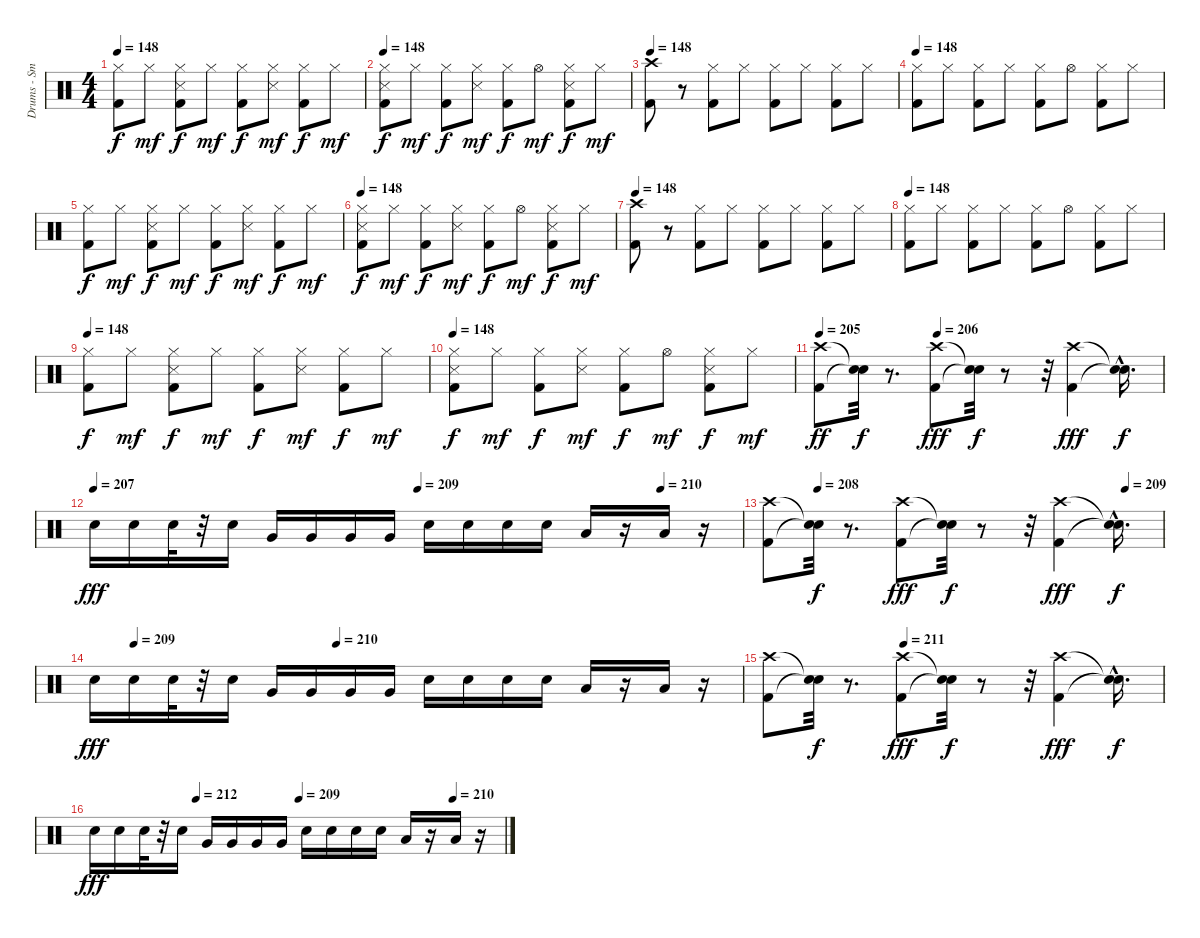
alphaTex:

\track ("Drums - Smelly" "Drums - Sm") {instrument percussion}
\staff {score}
\articulation defaults
\ts (4 4)
\tempo 148
\clef neutral
\ks c
("Kick (hit) 2" "Hi-Hat (closed)").8{dy f} "Hi-Hat (closed)".8{dy mf} ("Hi-Hat (closed)" "Kick (hit) 2" "Snare (side stick) 3").8{dy f} "Hi-Hat (closed)".8{dy mf} ("Hi-Hat (closed)" "Kick (hit) 2").8{dy f} ("Hi-Hat (closed)" "Snare (side stick) 3").8{dy mf} ("Hi-Hat (closed)" "Kick (hit) 2").8{dy f} "Hi-Hat (closed)".8{dy mf} |
\tempo 148
("Snare (side stick) 3" "Hi-Hat (closed)" "Kick (hit) 2").8{dy f} "Hi-Hat (closed)".8{dy mf} ("Kick (hit) 2" "Hi-Hat (closed)").8{dy f} ("Hi-Hat (closed)" "Snare (side stick) 3").8{dy mf} ("Hi-Hat (closed)" "Kick (hit) 2").8{dy f} "Hi-Hat (open)".8{dy mf} ("Hi-Hat (closed)" "Kick (hit) 2" "Snare (side stick) 3").8{dy f} "Hi-Hat (closed)".8{dy mf} |
\tempo 148
("Crash high (hit)" "Kick (hit) 2").8 r.8 ("Kick (hit) 2" "Hi-Hat (closed)").8 "Hi-Hat (closed)".8 ("Hi-Hat (closed)" "Kick (hit) 2").8 "Hi-Hat (closed)".8 ("Kick (hit) 2" "Hi-Hat (closed)").8 "Hi-Hat (closed)".8 |
\tempo 148
("Kick (hit) 2" "Hi-Hat (closed)").8 "Hi-Hat (closed)".8 ("Hi-Hat (closed)" "Kick (hit) 2").8 "Hi-Hat (closed)".8 ("Hi-Hat (closed)" "Kick (hit) 2").8 "Hi-Hat (open)".8 ("Hi-Hat (closed)" "Kick (hit) 2").8 "Hi-Hat (closed)".8 |
("Hi-Hat (closed)" "Kick (hit) 2").8{dy f} "Hi-Hat (closed)".8{dy mf} ("Hi-Hat (closed)" "Kick (hit) 2" "Snare (side stick) 3").8{dy f} "Hi-Hat (closed)".8{dy mf} ("Kick (hit) 2" "Hi-Hat (closed)").8{dy f} ("Hi-Hat (closed)" "Snare (side stick) 3").8{dy mf} ("Hi-Hat (closed)" "Kick (hit) 2").8{dy f} "Hi-Hat (closed)".8{dy mf} |
\tempo 148
("Hi-Hat (closed)" "Kick (hit) 2" "Snare (side stick) 3").8{dy f} "Hi-Hat (closed)".8{dy mf} ("Kick (hit) 2" "Hi-Hat (closed)").8{dy f} ("Snare (side stick) 3" "Hi-Hat (closed)").8{dy mf} ("Hi-Hat (closed)" "Kick (hit) 2").8{dy f} "Hi-Hat (open)".8{dy mf} ("Hi-Hat (closed)" "Snare (side stick) 3" "Kick (hit) 2").8{dy f} "Hi-Hat (closed)".8{dy mf} |
\tempo 148
("Crash high (hit)" "Kick (hit) 2").8 r.8 ("Hi-Hat (closed)" "Kick (hit) 2").8 "Hi-Hat (closed)".8 ("Kick (hit) 2" "Hi-Hat (closed)").8 "Hi-Hat (closed)".8 ("Kick (hit) 2" "Hi-Hat (closed)").8 "Hi-Hat (closed)".8 |
\tempo 148
("Hi-Hat (closed)" "Kick (hit) 2").8 "Hi-Hat (closed)".8 ("Hi-Hat (closed)" "Kick (hit) 2").8 "Hi-Hat (closed)".8 ("Hi-Hat (closed)" "Kick (hit) 2").8 "Hi-Hat (open)".8 ("Kick (hit) 2" "Hi-Hat (closed)").8 "Hi-Hat (closed)".8 |
\tempo 148
("Kick (hit) 2" "Hi-Hat (closed)").8{dy f} "Hi-Hat (closed)".8{dy mf} ("Kick (hit) 2" "Snare (side stick) 3" "Hi-Hat (closed)").8{dy f} "Hi-Hat (closed)".8{dy mf} ("Hi-Hat (closed)" "Kick (hit) 2").8{dy f} ("Snare (side stick) 3" "Hi-Hat (closed)").8{dy mf} ("Kick (hit) 2" "Hi-Hat (closed)").8{dy f} "Hi-Hat (closed)".8{dy mf} |
\tempo 148
("Hi-Hat (closed)" "Kick (hit) 2" "Snare (side stick) 3").8{dy f} "Hi-Hat (closed)".8{dy mf} ("Hi-Hat (closed)" "Kick (hit) 2").8{dy f} ("Snare (side stick) 3" "Hi-Hat (closed)").8{dy mf} ("Hi-Hat (closed)" "Kick (hit) 2").8{dy f} "Hi-Hat (open)".8{dy mf} ("Snare (side stick) 3" "Kick (hit) 2" "Hi-Hat (closed)").8{dy f} "Hi-Hat (closed)".8{dy mf} |
\tempo 205
\tempo (206 0.34375)
("Crash high (hit)" "Kick (hit) 2").8{dy ff} ("Snare (hit)"{t} "Snare (hit)"{t}).32{dy f} r.8{d} ("Crash high (hit)" "Kick (hit) 2").8{dy fff} ("Snare (hit)"{t} "Snare (hit)"{t}).32{dy f} r.8 r.32 ("Kick (hit) 2" "Crash high (hit)").4{dy fff} ("Snare (hit)"{hac t} "Snare (hit)"{hac t}).16{d dy f} |
\tempo 207
\tempo (209 0.5)
\tempo (210 0.875)
"Electric Snare (hit)".16{dy fff} "Electric Snare (hit)".16 "Electric Snare (hit)".32 r.32 "Electric Snare (hit)".16 "Very Low Tom (hit)".16 "Very Low Tom (hit)".16 "Very Low Tom (hit)".16 "Very Low Tom (hit)".16 "Electric Snare (hit)".16 "Electric Snare (hit)".16 "Electric Snare (hit)".16 "Electric Snare (hit)".16 "Low Floor Tom (hit)".16 r.16 "Low Floor Tom (hit)".16 r.16 |
\tempo (208 0.125)
\tempo (209 0.90625)
("Crash high (hit)" "Kick (hit) 2").8 ("Snare (hit)"{t} "Snare (hit)"{t}).32{dy f} r.8{d} ("Crash high (hit)" "Kick (hit) 2").8{dy fff} ("Snare (hit)"{t} "Snare (hit)"{t}).32{dy f} r.8 r.32 ("Kick (hit) 2" "Crash high (hit)").4{dy fff} ("Snare (hit)"{hac t} "Snare (hit)"{hac t}).16{d dy f} |
\tempo (209 0.0625)
\tempo (210 0.375)
"Electric Snare (hit)".16{dy fff} "Electric Snare (hit)".16 "Electric Snare (hit)".32 r.32 "Electric Snare (hit)".16 "Very Low Tom (hit)".16 "Very Low Tom (hit)".16 "Very Low Tom (hit)".16 "Very Low Tom (hit)".16 "Electric Snare (hit)".16 "Electric Snare (hit)".16 "Electric Snare (hit)".16 "Electric Snare (hit)".16 "Low Floor Tom (hit)".16 r.16 "Low Floor Tom (hit)".16 r.16 |
\tempo (211 0.34375)
("Crash high (hit)" "Kick (hit) 2").8 ("Snare (hit)"{t} "Snare (hit)"{t}).32{dy f} r.8{d} ("Crash high (hit)" "Kick (hit) 2").8{dy fff} ("Snare (hit)"{t} "Snare (hit)"{t}).32{dy f} r.8 r.32 ("Kick (hit) 2" "Crash high (hit)").4{dy fff} ("Snare (hit)"{hac t} "Snare (hit)"{hac t}).16{d dy f} |
\tempo (212 0.25)
\tempo (209 0.5)
\tempo (210 0.875)
"Electric Snare (hit)".16{dy fff} "Electric Snare (hit)".16 "Electric Snare (hit)".32 r.32 "Electric Snare (hit)".16 "Very Low Tom (hit)".16 "Very Low Tom (hit)".16 "Very Low Tom (hit)".16 "Very Low Tom (hit)".16 "Electric Snare (hit)".16 "Electric Snare (hit)".16 "Electric Snare (hit)".16 "Electric Snare (hit)".16 "Low Floor Tom (hit)".16 r.16 "Low Floor Tom (hit)".16 r.16
